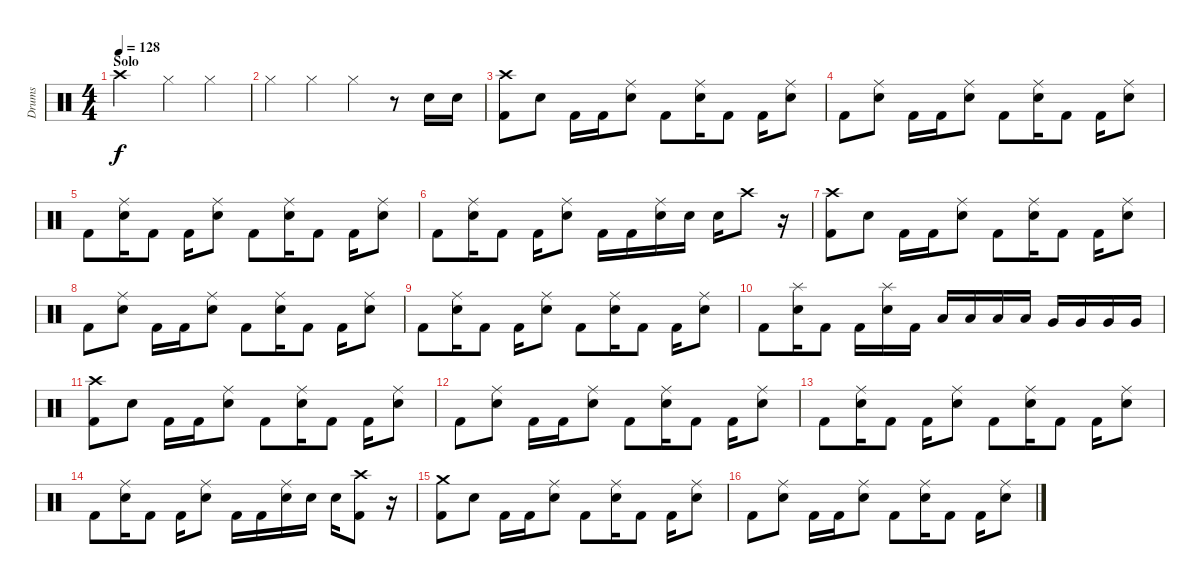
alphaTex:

\track ("Drums" "Drums") {instrument percussion}
\staff {score}
\articulation defaults
\ts (4 4)
\section ("" "Solo")
\tempo 128
\clef neutral
\ks c "Crash high (hit)".2{dy f} "Hi-Hat (closed)".4 "Hi-Hat (closed)".4
|
"Hi-Hat (closed)".4 "Hi-Hat (closed)".4 "Hi-Hat (closed)".4 r.8 "Snare (hit) 2".16 "Snare (hit) 2".16 |
("Crash high (hit)" "Kick (hit) 2").8 "Snare (hit) 2".8 "Kick (hit) 2".16 "Kick (hit) 2".16 ("Ride (middle)" "Snare (hit) 2").8 "Kick (hit) 2".8 ("Ride (middle)" "Snare (hit) 2").16 "Kick (hit) 2".8 "Kick (hit) 2".16 ("Ride (middle)" "Snare (hit) 2").8 |
"Kick (hit) 2".8 ("Ride (middle)" "Snare (hit) 2").8 "Kick (hit) 2".16 "Kick (hit) 2".16 ("Ride (middle)" "Snare (hit) 2").8 "Kick (hit) 2".8 ("Ride (middle)" "Snare (hit) 2").16 "Kick (hit) 2".8 "Kick (hit) 2".16 ("Ride (middle)" "Snare (hit) 2").8 |
"Kick (hit) 2".8 ("Ride (middle)" "Snare (hit) 2").16 "Kick (hit) 2".8 "Kick (hit) 2".16 ("Ride (middle)" "Snare (hit) 2").8 "Kick (hit) 2".8 ("Ride (middle)" "Snare (hit) 2").16 "Kick (hit) 2".8 "Kick (hit) 2".16 ("Ride (middle)" "Snare (hit) 2").8 |
"Kick (hit) 2".8 ("Ride (middle)" "Snare (hit) 2").16 "Kick (hit) 2".8 "Kick (hit) 2".16 ("Ride (middle)" "Snare (hit) 2").8 "Kick (hit) 2".16 "Kick (hit) 2".16 ("Ride (middle)" "Snare (hit) 2").16 "Snare (hit) 2".16 "Snare (hit) 2".16 "Crash high (hit)".8 r.16 |
("Crash high (hit)" "Kick (hit) 2").8 "Snare (hit) 2".8 "Kick (hit) 2".16 "Kick (hit) 2".16 ("Ride (middle)" "Snare (hit) 2").8 "Kick (hit) 2".8 ("Ride (middle)" "Snare (hit) 2").16 "Kick (hit) 2".8 "Kick (hit) 2".16 ("Ride (middle)" "Snare (hit) 2").8 |
"Kick (hit) 2".8 ("Ride (middle)" "Snare (hit) 2").8 "Kick (hit) 2".16 "Kick (hit) 2".16 ("Ride (middle)" "Snare (hit) 2").8 "Kick (hit) 2".8 ("Ride (middle)" "Snare (hit) 2").16 "Kick (hit) 2".8 "Kick (hit) 2".16 ("Ride (middle)" "Snare (hit) 2").8 |
"Kick (hit) 2".8 ("Ride (middle)" "Snare (hit) 2").16 "Kick (hit) 2".8 "Kick (hit) 2".16 ("Ride (middle)" "Snare (hit) 2").8 "Kick (hit) 2".8 ("Ride (middle)" "Snare (hit) 2").16 "Kick (hit) 2".8 "Kick (hit) 2".16 ("Ride (middle)" "Snare (hit) 2").8 |
"Kick (hit) 2".8 ("Splash (hit)" "Snare (hit) 2").16 "Kick (hit) 2".8 "Kick (hit) 2".16 ("Splash (hit)" "Snare (hit) 2").16 "Kick (hit) 2".16 "Low Tom (hit)".16 "Low Tom (hit)".16 "Low Tom (hit)".16 "Low Tom (hit)".16 "Very Low Tom (hit)".16 "Very Low Tom (hit)".16 "Very Low Tom (hit)".16 "Very Low Tom (hit)".16 |
("Crash high (hit)" "Kick (hit) 2").8 "Snare (hit) 2".8 "Kick (hit) 2".16 "Kick (hit) 2".16 ("Ride (middle)" "Snare (hit) 2").8 "Kick (hit) 2".8 ("Ride (middle)" "Snare (hit) 2").16 "Kick (hit) 2".8 "Kick (hit) 2".16 ("Ride (middle)" "Snare (hit) 2").8 |
"Kick (hit) 2".8 ("Ride (middle)" "Snare (hit) 2").8 "Kick (hit) 2".16 "Kick (hit) 2".16 ("Ride (middle)" "Snare (hit) 2").8 "Kick (hit) 2".8 ("Ride (middle)" "Snare (hit) 2").16 "Kick (hit) 2".8 "Kick (hit) 2".16 ("Ride (middle)" "Snare (hit) 2").8 |
"Kick (hit) 2".8 ("Ride (middle)" "Snare (hit) 2").16 "Kick (hit) 2".8 "Kick (hit) 2".16 ("Ride (middle)" "Snare (hit) 2").8 "Kick (hit) 2".8 ("Ride (middle)" "Snare (hit) 2").16 "Kick (hit) 2".8 "Kick (hit) 2".16 ("Ride (middle)" "Snare (hit) 2").8 |
"Kick (hit) 2".8 ("Ride (middle)" "Snare (hit) 2").16 "Kick (hit) 2".8 "Kick (hit) 2".16 ("Ride (middle)" "Snare (hit) 2").8 "Kick (hit) 2".16 "Kick (hit) 2".16 ("Ride (middle)" "Snare (hit) 2").16 "Snare (hit) 2".16 "Snare (hit) 2".16 ("Crash high (hit)" "Kick (hit) 2").8 r.16 |
("Crash medium (hit)" "Kick (hit) 2").8 "Snare (hit) 2".8 "Kick (hit) 2".16 "Kick (hit) 2".16 ("Ride (middle)" "Snare (hit) 2").8 "Kick (hit) 2".8 ("Ride (middle)" "Snare (hit) 2").16 "Kick (hit) 2".8 "Kick (hit) 2".16 ("Ride (middle)" "Snare (hit) 2").8 |
"Kick (hit) 2".8 ("Ride (middle)" "Snare (hit) 2").8 "Kick (hit) 2".16 "Kick (hit) 2".16 ("Ride (middle)" "Snare (hit) 2").8 "Kick (hit) 2".8 ("Ride (middle)" "Snare (hit) 2").16 "Kick (hit) 2".8 "Kick (hit) 2".16 ("Ride (middle)" "Snare (hit) 2").8
